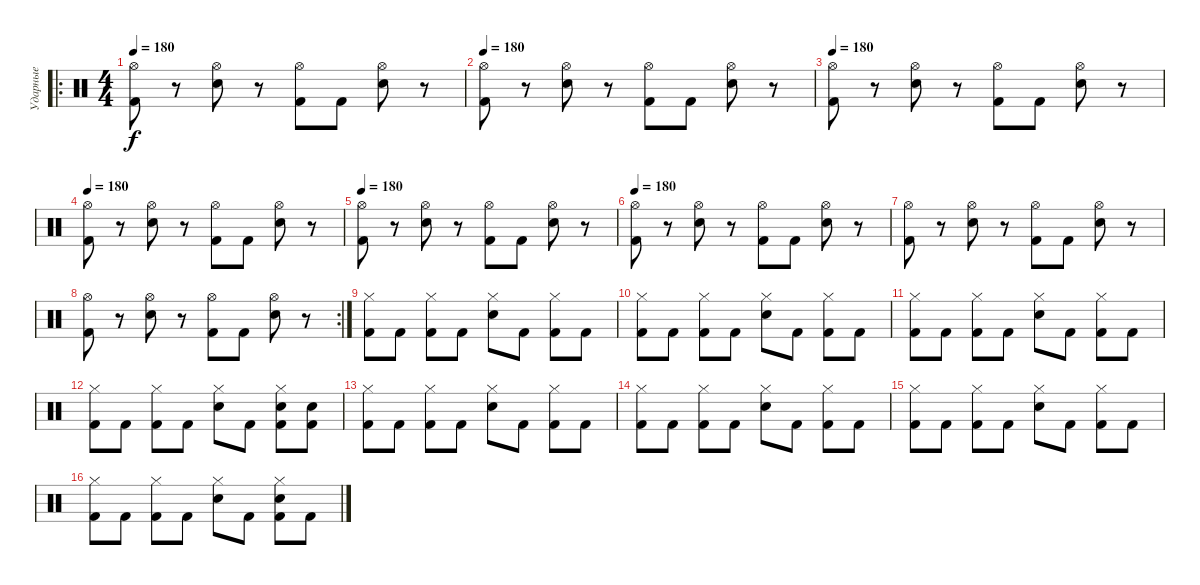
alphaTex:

\track ("Ударные" "Ударные") {instrument percussion}
\staff {score}
\articulation defaults
\ro
\ts (4 4)
\tempo 180
\clef neutral
\ks c
("Hi-Hat (open)" "Kick (hit) 2").8{dy f} r.8 ("Hi-Hat (open)" "Snare (hit) 2").8 r.8 ("Hi-Hat (open)" "Kick (hit) 2").8 "Kick (hit) 2".8 ("Hi-Hat (open)" "Snare (hit) 2").8 r.8 |
\tempo 180
("Hi-Hat (open)" "Kick (hit) 2").8 r.8 ("Hi-Hat (open)" "Snare (hit) 2").8 r.8 ("Hi-Hat (open)" "Kick (hit) 2").8 "Kick (hit) 2".8 ("Hi-Hat (open)" "Snare (hit) 2").8 r.8 |
\tempo 180
("Hi-Hat (open)" "Kick (hit) 2").8 r.8 ("Hi-Hat (open)" "Snare (hit) 2").8 r.8 ("Hi-Hat (open)" "Kick (hit) 2").8 "Kick (hit) 2".8 ("Hi-Hat (open)" "Snare (hit) 2").8 r.8 |
\tempo 180
("Hi-Hat (open)" "Kick (hit) 2").8 r.8 ("Hi-Hat (open)" "Snare (hit) 2").8 r.8 ("Hi-Hat (open)" "Kick (hit) 2").8 "Kick (hit) 2".8 ("Hi-Hat (open)" "Snare (hit) 2").8 r.8 |
\tempo 180
("Hi-Hat (open)" "Kick (hit) 2").8 r.8 ("Hi-Hat (open)" "Snare (hit) 2").8 r.8 ("Hi-Hat (open)" "Kick (hit) 2").8 "Kick (hit) 2".8 ("Hi-Hat (open)" "Snare (hit) 2").8 r.8 |
\tempo 180
("Hi-Hat (open)" "Kick (hit) 2").8 r.8 ("Hi-Hat (open)" "Snare (hit) 2").8 r.8 ("Hi-Hat (open)" "Kick (hit) 2").8 "Kick (hit) 2".8 ("Hi-Hat (open)" "Snare (hit) 2").8 r.8 |
("Hi-Hat (open)" "Kick (hit) 2").8 r.8 ("Hi-Hat (open)" "Snare (hit) 2").8 r.8 ("Hi-Hat (open)" "Kick (hit) 2").8 "Kick (hit) 2".8 ("Hi-Hat (open)" "Snare (hit) 2").8 r.8 |
\rc 2
("Hi-Hat (open)" "Kick (hit) 2").8 r.8 ("Hi-Hat (open)" "Snare (hit) 2").8 r.8 ("Hi-Hat (open)" "Kick (hit) 2").8 "Kick (hit) 2".8 ("Hi-Hat (open)" "Snare (hit) 2").8 r.8 |
("Hi-Hat (closed)" "Kick (hit) 2").8 "Kick (hit) 2".8 ("Hi-Hat (closed)" "Kick (hit) 2").8 "Kick (hit) 2".8 ("Hi-Hat (closed)" "Snare (hit) 2").8 "Kick (hit) 2".8 ("Hi-Hat (closed)" "Kick (hit) 2").8 "Kick (hit) 2".8 |
("Hi-Hat (closed)" "Kick (hit) 2").8 "Kick (hit) 2".8 ("Hi-Hat (closed)" "Kick (hit) 2").8 "Kick (hit) 2".8 ("Hi-Hat (closed)" "Snare (hit) 2").8 "Kick (hit) 2".8 ("Hi-Hat (closed)" "Kick (hit) 2").8 "Kick (hit) 2".8 |
("Hi-Hat (closed)" "Kick (hit) 2").8 "Kick (hit) 2".8 ("Hi-Hat (closed)" "Kick (hit) 2").8 "Kick (hit) 2".8 ("Hi-Hat (closed)" "Snare (hit) 2").8 "Kick (hit) 2".8 ("Hi-Hat (closed)" "Kick (hit) 2").8 "Kick (hit) 2".8 |
("Hi-Hat (closed)" "Kick (hit) 2").8 "Kick (hit) 2".8 ("Hi-Hat (closed)" "Kick (hit) 2").8 "Kick (hit) 2".8 ("Hi-Hat (closed)" "Snare (hit) 2").8 "Kick (hit) 2".8 ("Hi-Hat (closed)" "Snare (hit) 2" "Kick (hit) 2").8 ("Snare (hit) 2" "Kick (hit) 2").8 |
("Hi-Hat (closed)" "Kick (hit) 2").8 "Kick (hit) 2".8 ("Hi-Hat (closed)" "Kick (hit) 2").8 "Kick (hit) 2".8 ("Hi-Hat (closed)" "Snare (hit) 2").8 "Kick (hit) 2".8 ("Hi-Hat (closed)" "Kick (hit) 2").8 "Kick (hit) 2".8 |
("Hi-Hat (closed)" "Kick (hit) 2").8 "Kick (hit) 2".8 ("Hi-Hat (closed)" "Kick (hit) 2").8 "Kick (hit) 2".8 ("Hi-Hat (closed)" "Snare (hit) 2").8 "Kick (hit) 2".8 ("Hi-Hat (closed)" "Kick (hit) 2").8 "Kick (hit) 2".8 |
("Hi-Hat (closed)" "Kick (hit) 2").8 "Kick (hit) 2".8 ("Hi-Hat (closed)" "Kick (hit) 2").8 "Kick (hit) 2".8 ("Hi-Hat (closed)" "Snare (hit) 2").8 "Kick (hit) 2".8 ("Hi-Hat (closed)" "Kick (hit) 2").8 "Kick (hit) 2".8 |
("Hi-Hat (closed)" "Kick (hit) 2").8 "Kick (hit) 2".8 ("Hi-Hat (closed)" "Kick (hit) 2").8 "Kick (hit) 2".8 ("Hi-Hat (closed)" "Snare (hit) 2").8 "Kick (hit) 2".8 ("Hi-Hat (closed)" "Snare (hit) 2" "Kick (hit) 2").8 "Kick (hit) 2".8
